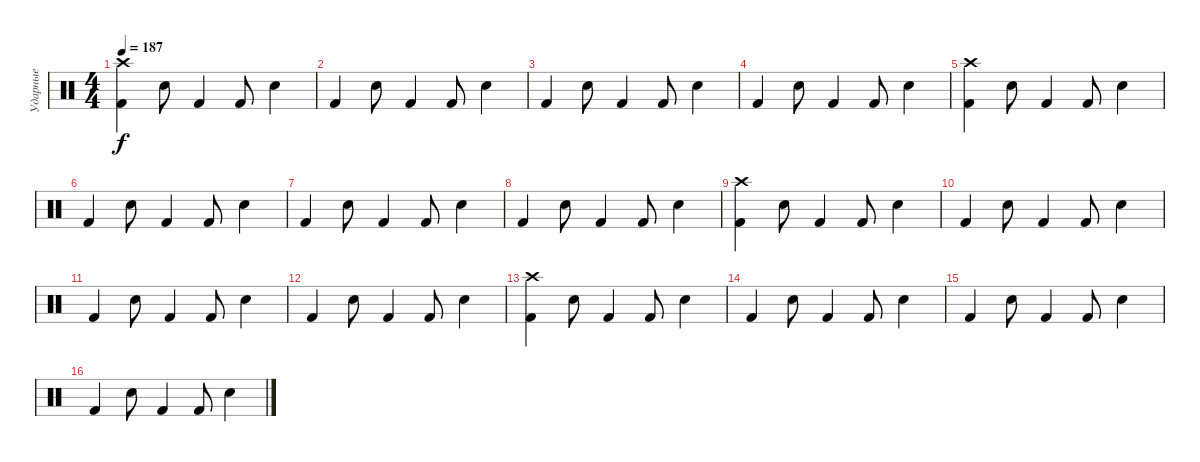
\track ("Ударные" "Ударные") {instrument percussion}
\staff {score}
\articulation defaults
\ts (4 4)
\tempo 187
\clef neutral
\ks c
("Crash high (hit)" "Kick (hit) 2").4{dy f} "Snare (hit) 2".8 "Kick (hit) 2".4 "Kick (hit) 2".8 "Snare (hit) 2".4 |
"Kick (hit) 2".4 "Snare (hit) 2".8 "Kick (hit) 2".4 "Kick (hit) 2".8 "Snare (hit) 2".4 |
"Kick (hit) 2".4 "Snare (hit) 2".8 "Kick (hit) 2".4 "Kick (hit) 2".8 "Snare (hit) 2".4 |
"Kick (hit) 2".4 "Snare (hit) 2".8 "Kick (hit) 2".4 "Kick (hit) 2".8 "Snare (hit) 2".4 |
("Crash high (hit)" "Kick (hit) 2").4 "Snare (hit) 2".8 "Kick (hit) 2".4 "Kick (hit) 2".8 "Snare (hit) 2".4 |
"Kick (hit) 2".4 "Snare (hit) 2".8 "Kick (hit) 2".4 "Kick (hit) 2".8 "Snare (hit) 2".4 |
"Kick (hit) 2".4 "Snare (hit) 2".8 "Kick (hit) 2".4 "Kick (hit) 2".8 "Snare (hit) 2".4 |
"Kick (hit) 2".4 "Snare (hit) 2".8 "Kick (hit) 2".4 "Kick (hit) 2".8 "Snare (hit) 2".4 |
("Crash high (hit)" "Kick (hit) 2").4 "Snare (hit) 2".8 "Kick (hit) 2".4 "Kick (hit) 2".8 "Snare (hit) 2".4 |
"Kick (hit) 2".4 "Snare (hit) 2".8 "Kick (hit) 2".4 "Kick (hit) 2".8 "Snare (hit) 2".4 |
"Kick (hit) 2".4 "Snare (hit) 2".8 "Kick (hit) 2".4 "Kick (hit) 2".8 "Snare (hit) 2".4 |
"Kick (hit) 2".4 "Snare (hit) 2".8 "Kick (hit) 2".4 "Kick (hit) 2".8 "Snare (hit) 2".4 |
("Crash high (hit)" "Kick (hit) 2").4 "Snare (hit) 2".8 "Kick (hit) 2".4 "Kick (hit) 2".8 "Snare (hit) 2".4 |
"Kick (hit) 2".4 "Snare (hit) 2".8 "Kick (hit) 2".4 "Kick (hit) 2".8 "Snare (hit) 2".4 |
"Kick (hit) 2".4 "Snare (hit) 2".8 "Kick (hit) 2".4 "Kick (hit) 2".8 "Snare (hit) 2".4 |
"Kick (hit) 2".4 "Snare (hit) 2".8 "Kick (hit) 2".4 "Kick (hit) 2".8 "Snare (hit) 2".4
